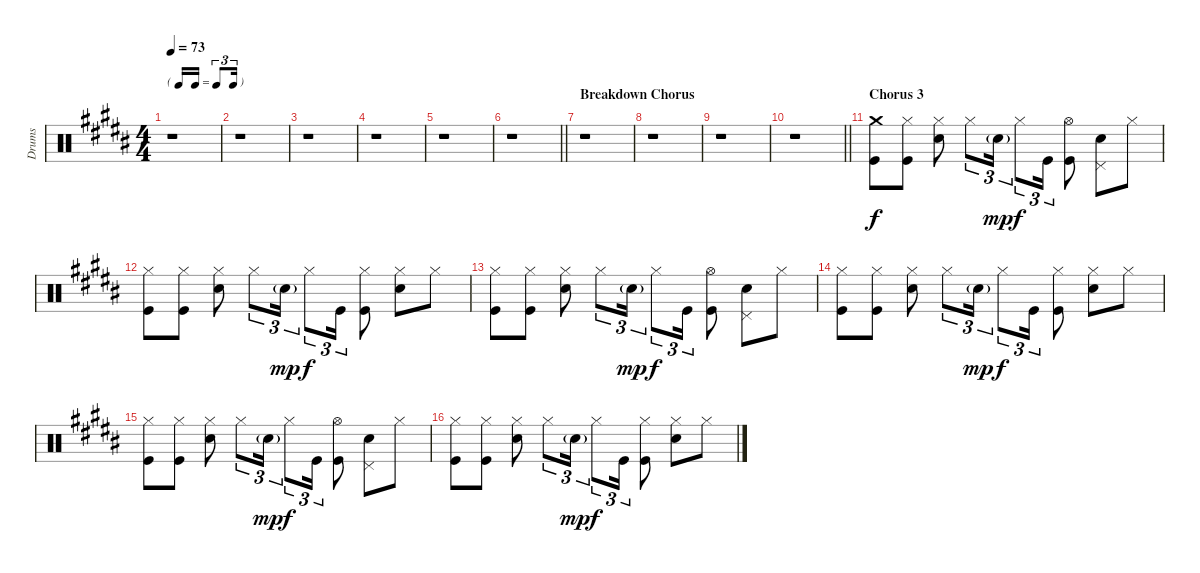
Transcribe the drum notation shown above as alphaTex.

\track ("Drums" "Drums") {instrument percussion}
\staff {score}
\articulation defaults
\ts (4 4)
\tf triplet16th
\tempo 73
\clef neutral
\ks b
r.1{dy f} |
r.1 |
r.1 |
r.1 |
r.1 |
\barLineRight lightlight
r.1 |
\section ("" "Breakdown Chorus")
r.1 |
r.1 |
r.1 |
\barLineRight lightlight
r.1 |
\section ("" "Chorus 3")
("Crash medium (hit)" "Kick (hit)").8 ("Hi-Hat (closed)" "Kick (hit)").8 ("Hi-Hat (closed)" "Electric Snare (hit)").8 "Hi-Hat (closed)".8{tu (3 2)} "Electric Snare (hit)"{g}.16{tu (3 2) dy mp} "Hi-Hat (closed)".8{tu (3 2) dy f} "Kick (hit)".16{tu (3 2)} ("Hi-Hat (open)" "Kick (hit)").8 ("Pedal Hi-Hat (hit)" "Electric Snare (hit)").8 "Hi-Hat (closed)".8 |
("Hi-Hat (closed)" "Kick (hit)").8 ("Hi-Hat (closed)" "Kick (hit)").8 ("Hi-Hat (closed)" "Electric Snare (hit)").8 "Hi-Hat (closed)".8{tu (3 2)} "Electric Snare (hit)"{g}.16{tu (3 2) dy mp} "Hi-Hat (closed)".8{tu (3 2) dy f} "Kick (hit)".16{tu (3 2)} ("Hi-Hat (closed)" "Kick (hit)").8 ("Hi-Hat (closed)" "Electric Snare (hit)").8 "Hi-Hat (closed)".8 |
("Hi-Hat (closed)" "Kick (hit)").8 ("Hi-Hat (closed)" "Kick (hit)").8 ("Hi-Hat (closed)" "Electric Snare (hit)").8 "Hi-Hat (closed)".8{tu (3 2)} "Electric Snare (hit)"{g}.16{tu (3 2) dy mp} "Hi-Hat (closed)".8{tu (3 2) dy f} "Kick (hit)".16{tu (3 2)} ("Hi-Hat (open)" "Kick (hit)").8 ("Pedal Hi-Hat (hit)" "Electric Snare (hit)").8 "Hi-Hat (closed)".8 |
("Hi-Hat (closed)" "Kick (hit)").8 ("Hi-Hat (closed)" "Kick (hit)").8 ("Hi-Hat (closed)" "Electric Snare (hit)").8 "Hi-Hat (closed)".8{tu (3 2)} "Electric Snare (hit)"{g}.16{tu (3 2) dy mp} "Hi-Hat (closed)".8{tu (3 2) dy f} "Kick (hit)".16{tu (3 2)} ("Hi-Hat (closed)" "Kick (hit)").8 ("Hi-Hat (closed)" "Electric Snare (hit)").8 "Hi-Hat (closed)".8 |
("Hi-Hat (closed)" "Kick (hit)").8 ("Hi-Hat (closed)" "Kick (hit)").8 ("Hi-Hat (closed)" "Electric Snare (hit)").8 "Hi-Hat (closed)".8{tu (3 2)} "Electric Snare (hit)"{g}.16{tu (3 2) dy mp} "Hi-Hat (closed)".8{tu (3 2) dy f} "Kick (hit)".16{tu (3 2)} ("Hi-Hat (open)" "Kick (hit)").8 ("Pedal Hi-Hat (hit)" "Electric Snare (hit)").8 "Hi-Hat (closed)".8 |
("Hi-Hat (closed)" "Kick (hit)").8 ("Hi-Hat (closed)" "Kick (hit)").8 ("Hi-Hat (closed)" "Electric Snare (hit)").8 "Hi-Hat (closed)".8{tu (3 2)} "Electric Snare (hit)"{g}.16{tu (3 2) dy mp} "Hi-Hat (closed)".8{tu (3 2) dy f} "Kick (hit)".16{tu (3 2)} ("Hi-Hat (closed)" "Kick (hit)").8 ("Hi-Hat (closed)" "Electric Snare (hit)").8 "Hi-Hat (closed)".8
